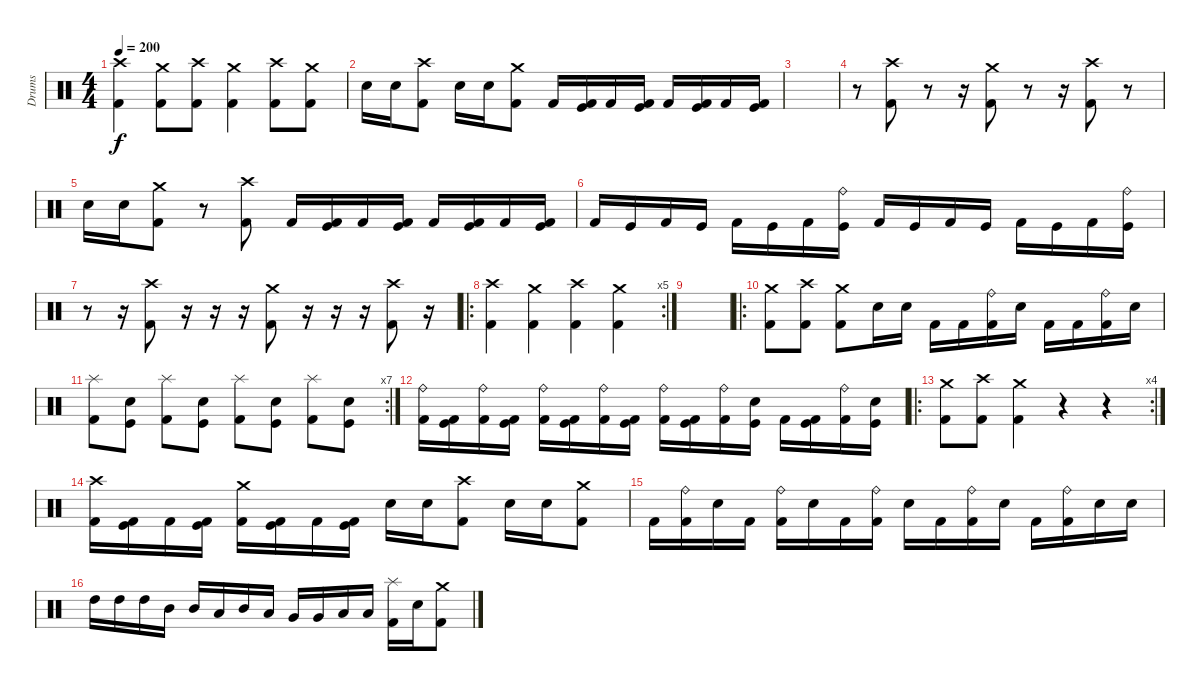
\track ("Drums" "Drums") {instrument percussion}
\staff {score}
\articulation defaults
\ts (4 4)
\tempo 200
\clef neutral
\ks c
("Crash high (hit)" "Kick (hit) 2").4{dy f} ("Crash medium (hit)" "Kick (hit) 2").8 ("Crash high (hit)" "Kick (hit) 2").8 ("Crash medium (hit)" "Kick (hit) 2").4 ("Crash high (hit)" "Kick (hit) 2").8 ("Crash medium (hit)" "Kick (hit) 2").8 |
"Electric Snare (hit)".16 "Electric Snare (hit)".16 ("Crash high (hit)" "Kick (hit) 2").8 "Electric Snare (hit)".16 "Electric Snare (hit)".16 ("Crash medium (hit)" "Kick (hit) 2").8 "Kick (hit) 2".16 ("Kick (hit)" "Kick (hit) 2").16 "Kick (hit) 2".16 ("Kick (hit)" "Kick (hit) 2").16 "Kick (hit) 2".16 ("Kick (hit)" "Kick (hit) 2").16 "Kick (hit) 2".16 ("Kick (hit)" "Kick (hit) 2").16 |
|
r.8 ("Crash high (hit)" "Kick (hit) 2").8 r.8 r.16 ("Crash medium (hit)" "Kick (hit) 2").8 r.8 r.16 ("Crash high (hit)" "Kick (hit) 2").8 r.8 |
"Electric Snare (hit)".16 "Electric Snare (hit)".16 ("Crash medium (hit)" "Kick (hit) 2").8 r.8 ("Crash high (hit)" "Kick (hit) 2").8 "Kick (hit) 2".16 ("Kick (hit)" "Kick (hit) 2").16 "Kick (hit) 2".16 ("Kick (hit)" "Kick (hit) 2").16 "Kick (hit) 2".16 ("Kick (hit)" "Kick (hit) 2").16 "Kick (hit) 2".16 ("Kick (hit)" "Kick (hit) 2").16 |
"Kick (hit) 2".16 "Kick (hit)".16 "Kick (hit) 2".16 "Kick (hit)".16 "Kick (hit) 2".16 "Kick (hit)".16 "Kick (hit) 2".16 ("Ride (bell)" "Kick (hit)").16 "Kick (hit) 2".16 "Kick (hit)".16 "Kick (hit) 2".16 "Kick (hit)".16 "Kick (hit) 2".16 "Kick (hit)".16 "Kick (hit) 2".16 ("Ride (bell)" "Kick (hit)").16 |
r.8 r.16 ("Crash high (hit)" "Kick (hit) 2").8 r.16 r.16 r.16 ("Crash medium (hit)" "Kick (hit) 2").8 r.16 r.16 r.16 ("Crash high (hit)" "Kick (hit) 2").8 r.16 |
\ro
\rc 5
("Crash high (hit)" "Kick (hit) 2").4 ("Crash medium (hit)" "Kick (hit) 2").4 ("Crash high (hit)" "Kick (hit) 2").4 ("Crash medium (hit)" "Kick (hit) 2").4 |
|
\ro
("Crash medium (hit)" "Kick (hit) 2").8 ("Crash high (hit)" "Kick (hit) 2").8 ("Crash medium (hit)" "Kick (hit) 2").8 "Electric Snare (hit)".16 "Electric Snare (hit)".16 "Kick (hit) 2".16 "Kick (hit) 2".16 ("Ride (bell)" "Kick (hit) 2").16 "Electric Snare (hit)".16 "Kick (hit) 2".16 "Kick (hit) 2".16 ("Ride (bell)" "Kick (hit) 2").16 "Electric Snare (hit)".16 |
\rc 7
("Splash (hit)" "Kick (hit) 2").8 ("Electric Snare (hit)" "Kick (hit)").8 ("Splash (hit)" "Kick (hit) 2").8 ("Electric Snare (hit)" "Kick (hit)").8 ("Splash (hit)" "Kick (hit) 2").8 ("Electric Snare (hit)" "Kick (hit)").8 ("Splash (hit)" "Kick (hit) 2").8 ("Electric Snare (hit)" "Kick (hit)").8 |
("Ride (bell)" "Kick (hit) 2").16 ("Kick (hit)" "Kick (hit) 2").16 ("Ride (bell)" "Kick (hit) 2").16 ("Kick (hit)" "Kick (hit) 2").16 ("Ride (bell)" "Kick (hit) 2").16 ("Kick (hit)" "Kick (hit) 2").16 ("Ride (bell)" "Kick (hit) 2").16 ("Kick (hit)" "Kick (hit) 2").16 ("Ride (bell)" "Kick (hit) 2").16 ("Kick (hit)" "Kick (hit) 2").16 ("Ride (bell)" "Kick (hit) 2").16 ("Electric Snare (hit)" "Kick (hit)").16 "Kick (hit) 2".16 ("Kick (hit)" "Kick (hit) 2").16 ("Ride (bell)" "Kick (hit) 2").16 ("Electric Snare (hit)" "Kick (hit)").16 |
\ro
\rc 4
("Crash medium (hit)" "Kick (hit) 2").8 ("Crash high (hit)" "Kick (hit) 2").8 ("Crash medium (hit)" "Kick (hit) 2").4 r.4 r.4 |
("Crash high (hit)" "Kick (hit) 2").16 ("Kick (hit)" "Kick (hit) 2").16 "Kick (hit) 2".16 ("Kick (hit)" "Kick (hit) 2").16 ("Crash medium (hit)" "Kick (hit) 2").16 ("Kick (hit)" "Kick (hit) 2").16 "Kick (hit) 2".16 ("Kick (hit)" "Kick (hit) 2").16 "Electric Snare (hit)".16 "Electric Snare (hit)".16 ("Crash high (hit)" "Kick (hit) 2").8 "Electric Snare (hit)".16 "Electric Snare (hit)".16 ("Crash medium (hit)" "Kick (hit) 2").8 |
"Kick (hit) 2".16 ("Ride (bell)" "Kick (hit) 2").16 "Electric Snare (hit)".16 "Kick (hit) 2".16 ("Ride (bell)" "Kick (hit) 2").16 "Electric Snare (hit)".16 "Kick (hit) 2".16 ("Ride (bell)" "Kick (hit) 2").16 "Electric Snare (hit)".16 "Kick (hit) 2".16 ("Ride (bell)" "Kick (hit) 2").16 "Electric Snare (hit)".16 "Kick (hit) 2".16 ("Ride (bell)" "Kick (hit) 2").16 "Electric Snare (hit)".16 "Electric Snare (hit)".16 |
"High Tom (hit)".16 "High Tom (hit)".16 "High Tom (hit)".16 "Mid Tom (hit)".16 "Mid Tom (hit)".16 "Low Tom (hit)".16 "Mid Tom (hit)".16 "Low Tom (hit)".16 "Very Low Tom (hit)".16 "Very Low Tom (hit)".16 "Low Floor Tom (hit)".16 "Low Floor Tom (hit)".16 ("Splash (hit)" "Kick (hit) 2").16 "Electric Snare (hit)".16 ("Crash medium (hit)" "Kick (hit) 2").8
